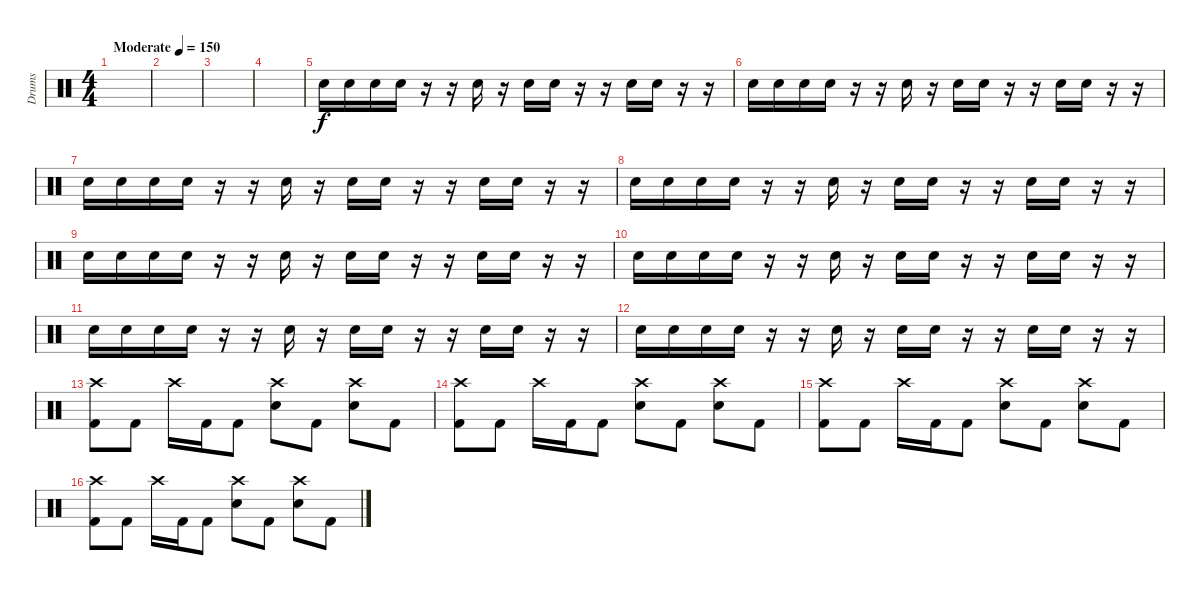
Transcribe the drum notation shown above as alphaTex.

\track ("Drums" "Drums") {instrument percussion}
\staff {score}
\articulation defaults
\ts (4 4)
\tempo (150 "Moderate")
\clef neutral
\ks c
|
|
|
|
"Electric Snare (hit)".16 "Electric Snare (hit)".16 "Electric Snare (hit)".16 "Electric Snare (hit)".16 r.16 r.16 "Electric Snare (hit)".16 r.16 "Electric Snare (hit)".16 "Electric Snare (hit)".16 r.16 r.16 "Electric Snare (hit)".16 "Electric Snare (hit)".16 r.16 r.16 |
"Electric Snare (hit)".16 "Electric Snare (hit)".16 "Electric Snare (hit)".16 "Electric Snare (hit)".16 r.16 r.16 "Electric Snare (hit)".16 r.16 "Electric Snare (hit)".16 "Electric Snare (hit)".16 r.16 r.16 "Electric Snare (hit)".16 "Electric Snare (hit)".16 r.16 r.16 |
"Electric Snare (hit)".16 "Electric Snare (hit)".16 "Electric Snare (hit)".16 "Electric Snare (hit)".16 r.16 r.16 "Electric Snare (hit)".16 r.16 "Electric Snare (hit)".16 "Electric Snare (hit)".16 r.16 r.16 "Electric Snare (hit)".16 "Electric Snare (hit)".16 r.16 r.16 |
"Electric Snare (hit)".16 "Electric Snare (hit)".16 "Electric Snare (hit)".16 "Electric Snare (hit)".16 r.16 r.16 "Electric Snare (hit)".16 r.16 "Electric Snare (hit)".16 "Electric Snare (hit)".16 r.16 r.16 "Electric Snare (hit)".16 "Electric Snare (hit)".16 r.16 r.16 |
"Electric Snare (hit)".16 "Electric Snare (hit)".16 "Electric Snare (hit)".16 "Electric Snare (hit)".16 r.16 r.16 "Electric Snare (hit)".16 r.16 "Electric Snare (hit)".16 "Electric Snare (hit)".16 r.16 r.16 "Electric Snare (hit)".16 "Electric Snare (hit)".16 r.16 r.16 |
"Electric Snare (hit)".16 "Electric Snare (hit)".16 "Electric Snare (hit)".16 "Electric Snare (hit)".16 r.16 r.16 "Electric Snare (hit)".16 r.16 "Electric Snare (hit)".16 "Electric Snare (hit)".16 r.16 r.16 "Electric Snare (hit)".16 "Electric Snare (hit)".16 r.16 r.16 |
"Electric Snare (hit)".16 "Electric Snare (hit)".16 "Electric Snare (hit)".16 "Electric Snare (hit)".16 r.16 r.16 "Electric Snare (hit)".16 r.16 "Electric Snare (hit)".16 "Electric Snare (hit)".16 r.16 r.16 "Electric Snare (hit)".16 "Electric Snare (hit)".16 r.16 r.16 |
"Electric Snare (hit)".16 "Electric Snare (hit)".16 "Electric Snare (hit)".16 "Electric Snare (hit)".16 r.16 r.16 "Electric Snare (hit)".16 r.16 "Electric Snare (hit)".16 "Electric Snare (hit)".16 r.16 r.16 "Electric Snare (hit)".16 "Electric Snare (hit)".16 r.16 r.16 |
("Crash high (hit)" "Kick (hit) 2").8 "Kick (hit) 2".8 "Crash high (hit)".16 "Kick (hit) 2".16 "Kick (hit) 2".8 ("Crash high (hit)" "Electric Snare (hit)").8 "Kick (hit) 2".8 ("Crash high (hit)" "Electric Snare (hit)").8 "Kick (hit) 2".8 |
("Crash high (hit)" "Kick (hit) 2").8 "Kick (hit) 2".8 "Crash high (hit)".16 "Kick (hit) 2".16 "Kick (hit) 2".8 ("Crash high (hit)" "Electric Snare (hit)").8 "Kick (hit) 2".8 ("Crash high (hit)" "Electric Snare (hit)").8 "Kick (hit) 2".8 |
("Crash high (hit)" "Kick (hit) 2").8 "Kick (hit) 2".8 "Crash high (hit)".16 "Kick (hit) 2".16 "Kick (hit) 2".8 ("Crash high (hit)" "Electric Snare (hit)").8 "Kick (hit) 2".8 ("Crash high (hit)" "Electric Snare (hit)").8 "Kick (hit) 2".8 |
("Crash high (hit)" "Kick (hit) 2").8 "Kick (hit) 2".8 "Crash high (hit)".16 "Kick (hit) 2".16 "Kick (hit) 2".8 ("Crash high (hit)" "Electric Snare (hit)").8 "Kick (hit) 2".8 ("Crash high (hit)" "Electric Snare (hit)").8 "Kick (hit) 2".8
